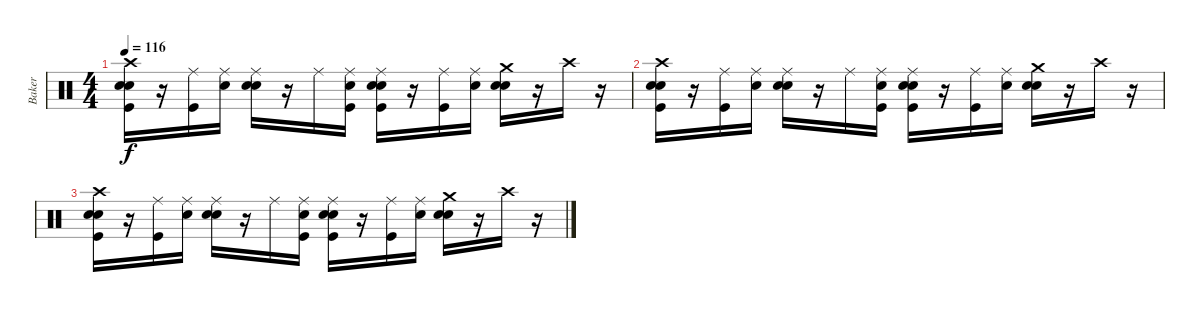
\track ("Baker" "Baker") {instrument percussion}
\staff {score}
\articulation defaults
\ts (4 4)
\tempo 116
\clef neutral
\ks c
("Snare (hit)" "Kick (hit)" "Electric Snare (hit)" "Crash high (hit)").16{dy f} r.16 ("Kick (hit)" "Ride (middle)").16 ("Snare (hit)" "Ride (middle)").16 ("Snare (hit)" "Electric Snare (hit)" "Ride (middle)").16 r.16 "Ride (middle)".16 ("Snare (hit)" "Kick (hit)" "Ride (middle)").16 ("Snare (hit)" "Kick (hit)" "Electric Snare (hit)" "Ride (middle)").16 r.16 ("Kick (hit)" "Ride (middle)").16 ("Snare (hit)" "Ride (middle)").16 ("Snare (hit)" "Electric Snare (hit)" "Crash medium (hit)").16 r.16 "Crash high (hit)".16 r.16 |
("Snare (hit)" "Kick (hit)" "Electric Snare (hit)" "Crash high (hit)").16 r.16 ("Kick (hit)" "Ride (middle)").16 ("Snare (hit)" "Ride (middle)").16 ("Snare (hit)" "Electric Snare (hit)" "Ride (middle)").16 r.16 "Ride (middle)".16 ("Snare (hit)" "Kick (hit)" "Ride (middle)").16 ("Snare (hit)" "Kick (hit)" "Electric Snare (hit)" "Ride (middle)").16 r.16 ("Kick (hit)" "Ride (middle)").16 ("Snare (hit)" "Ride (middle)").16 ("Snare (hit)" "Electric Snare (hit)" "Crash medium (hit)").16 r.16 "Crash high (hit)".16 r.16 |
("Snare (hit)" "Kick (hit)" "Electric Snare (hit)" "Crash high (hit)").16 r.16 ("Kick (hit)" "Ride (middle)").16 ("Snare (hit)" "Ride (middle)").16 ("Snare (hit)" "Electric Snare (hit)" "Ride (middle)").16 r.16 "Ride (middle)".16 ("Snare (hit)" "Kick (hit)" "Ride (middle)").16 ("Snare (hit)" "Kick (hit)" "Electric Snare (hit)" "Ride (middle)").16 r.16 ("Kick (hit)" "Ride (middle)").16 ("Snare (hit)" "Ride (middle)").16 ("Snare (hit)" "Electric Snare (hit)" "Crash medium (hit)").16 r.16 "Crash high (hit)".16 r.16
